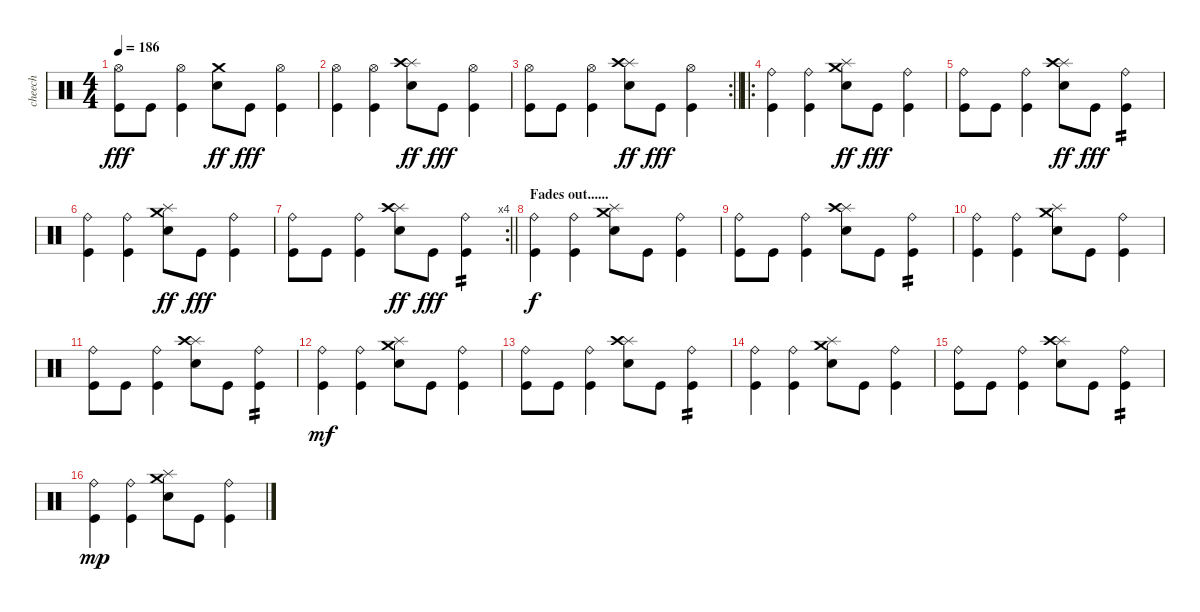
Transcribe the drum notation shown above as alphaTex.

\track ("cheech" "cheech") {instrument percussion}
\staff {score}
\articulation defaults
\ts (4 4)
\tempo 186
\clef neutral
\ks c
("Hi-Hat (open)" "Kick (hit)").8{dy fff} "Kick (hit)".8 ("Hi-Hat (open)" "Kick (hit)").4 ("Crash medium (hit)" "Electric Snare (hit)").8{dy ff} "Kick (hit)".8{dy fff} ("Hi-Hat (open)" "Kick (hit)").4 |
("Hi-Hat (open)" "Kick (hit)").4 ("Hi-Hat (open)" "Kick (hit)").4 ("Splash (hit)" "Crash high (hit)" "Electric Snare (hit)").8{dy ff} "Kick (hit)".8{dy fff} ("Hi-Hat (open)" "Kick (hit)").4 |
\rc 2
\barLineRight lightlight
("Hi-Hat (open)" "Kick (hit)").8 "Kick (hit)".8 ("Hi-Hat (open)" "Kick (hit)").4 ("Splash (hit)" "Crash high (hit)" "Electric Snare (hit)").8{dy ff} "Kick (hit)".8{dy fff} ("Hi-Hat (open)" "Kick (hit)").4 |
\ro
("Ride (bell)" "Kick (hit)").4 ("Ride (bell)" "Kick (hit)").4 ("Splash (hit)" "Crash medium (hit)" "Electric Snare (hit)").8{dy ff} "Kick (hit)".8{dy fff} ("Ride (bell)" "Kick (hit)").4 |
("Ride (bell)" "Kick (hit)").8 "Kick (hit)".8 ("Ride (bell)" "Kick (hit)").4 ("Splash (hit)" "Crash high (hit)" "Electric Snare (hit)").8{dy ff} "Kick (hit)".8{dy fff} ("Ride (bell)" "Kick (hit)").4{tp 2} |
("Ride (bell)" "Kick (hit)").4 ("Ride (bell)" "Kick (hit)").4 ("Splash (hit)" "Crash medium (hit)" "Electric Snare (hit)").8{dy ff} "Kick (hit)".8{dy fff} ("Ride (bell)" "Kick (hit)").4 |
\rc 4
\barLineRight lightlight
("Ride (bell)" "Kick (hit)").8 "Kick (hit)".8 ("Ride (bell)" "Kick (hit)").4 ("Splash (hit)" "Crash high (hit)" "Electric Snare (hit)").8{dy ff} "Kick (hit)".8{dy fff} ("Ride (bell)" "Kick (hit)").4{tp 2} |
\section ("" "Fades out......")
("Ride (bell)" "Kick (hit)").4{dy f} ("Ride (bell)" "Kick (hit)").4 ("Splash (hit)" "Crash medium (hit)" "Electric Snare (hit)").8 "Kick (hit)".8 ("Ride (bell)" "Kick (hit)").4 |
("Ride (bell)" "Kick (hit)").8 "Kick (hit)".8 ("Ride (bell)" "Kick (hit)").4 ("Splash (hit)" "Crash high (hit)" "Electric Snare (hit)").8 "Kick (hit)".8 ("Ride (bell)" "Kick (hit)").4{tp 2} |
("Ride (bell)" "Kick (hit)").4 ("Ride (bell)" "Kick (hit)").4 ("Splash (hit)" "Crash medium (hit)" "Electric Snare (hit)").8 "Kick (hit)".8 ("Ride (bell)" "Kick (hit)").4 |
("Ride (bell)" "Kick (hit)").8 "Kick (hit)".8 ("Ride (bell)" "Kick (hit)").4 ("Splash (hit)" "Crash high (hit)" "Electric Snare (hit)").8 "Kick (hit)".8 ("Ride (bell)" "Kick (hit)").4{tp 2} |
("Ride (bell)" "Kick (hit)").4{dy mf} ("Ride (bell)" "Kick (hit)").4 ("Splash (hit)" "Crash medium (hit)" "Electric Snare (hit)").8 "Kick (hit)".8 ("Ride (bell)" "Kick (hit)").4 |
("Ride (bell)" "Kick (hit)").8 "Kick (hit)".8 ("Ride (bell)" "Kick (hit)").4 ("Splash (hit)" "Crash high (hit)" "Electric Snare (hit)").8 "Kick (hit)".8 ("Ride (bell)" "Kick (hit)").4{tp 2} |
("Ride (bell)" "Kick (hit)").4 ("Ride (bell)" "Kick (hit)").4 ("Splash (hit)" "Crash medium (hit)" "Electric Snare (hit)").8 "Kick (hit)".8 ("Ride (bell)" "Kick (hit)").4 |
("Ride (bell)" "Kick (hit)").8 "Kick (hit)".8 ("Ride (bell)" "Kick (hit)").4 ("Splash (hit)" "Crash high (hit)" "Electric Snare (hit)").8 "Kick (hit)".8 ("Ride (bell)" "Kick (hit)").4{tp 2} |
("Ride (bell)" "Kick (hit)").4{dy mp} ("Ride (bell)" "Kick (hit)").4 ("Splash (hit)" "Crash medium (hit)" "Electric Snare (hit)").8 "Kick (hit)".8 ("Ride (bell)" "Kick (hit)").4
